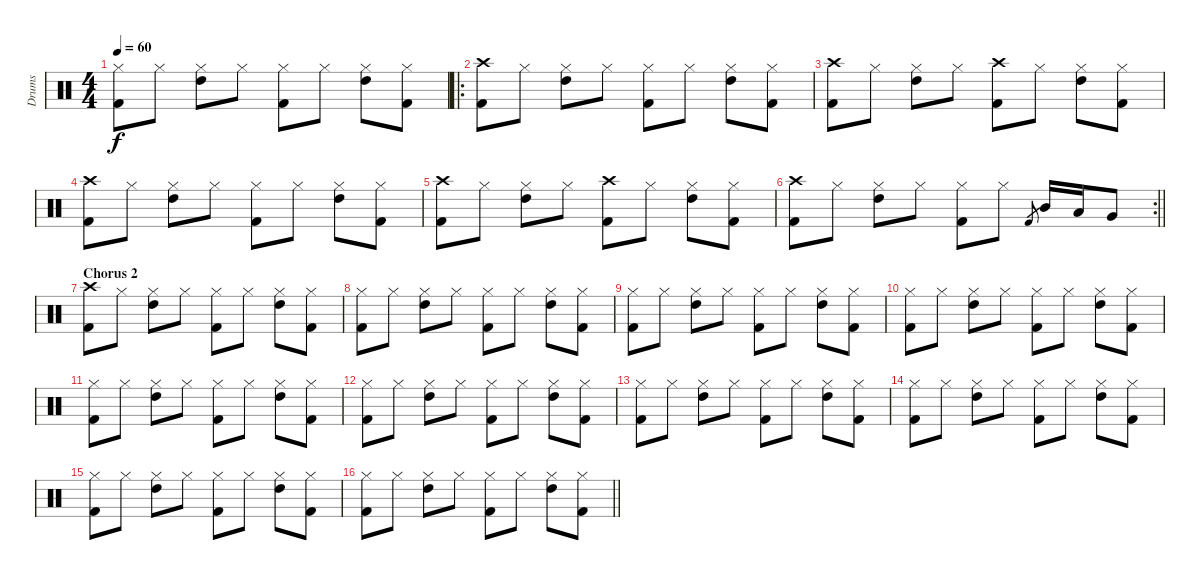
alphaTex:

\track ("Drums" "Drums") {instrument percussion}
\staff {score}
\articulation defaults
\ts (4 4)
\tempo 60
\clef neutral
\ks c
("Hi-Hat (closed)" "Kick (hit) 2").8{dy f} "Hi-Hat (closed)".8 ("Hi-Hat (closed)" "High Tom (hit)").8 "Hi-Hat (closed)".8 ("Hi-Hat (closed)" "Kick (hit) 2").8 "Hi-Hat (closed)".8 ("Hi-Hat (closed)" "High Tom (hit)").8 ("Hi-Hat (closed)" "Kick (hit) 2").8 |
\ro
("Crash high (hit)" "Kick (hit) 2").8 "Hi-Hat (closed)".8 ("Hi-Hat (closed)" "High Tom (hit)").8 "Hi-Hat (closed)".8 ("Hi-Hat (closed)" "Kick (hit) 2").8 "Hi-Hat (closed)".8 ("Hi-Hat (closed)" "High Tom (hit)").8 ("Hi-Hat (closed)" "Kick (hit) 2").8 |
("Crash high (hit)" "Kick (hit) 2").8 "Hi-Hat (closed)".8 ("Hi-Hat (closed)" "High Tom (hit)").8 "Hi-Hat (closed)".8 ("Crash high (hit)" "Kick (hit) 2").8 "Hi-Hat (closed)".8 ("Hi-Hat (closed)" "High Tom (hit)").8 ("Hi-Hat (closed)" "Kick (hit) 2").8 |
("Crash high (hit)" "Kick (hit) 2").8 "Hi-Hat (closed)".8 ("Hi-Hat (closed)" "High Tom (hit)").8 "Hi-Hat (closed)".8 ("Hi-Hat (closed)" "Kick (hit) 2").8 "Hi-Hat (closed)".8 ("Hi-Hat (closed)" "High Tom (hit)").8 ("Hi-Hat (closed)" "Kick (hit) 2").8 |
("Crash high (hit)" "Kick (hit) 2").8 "Hi-Hat (closed)".8 ("Hi-Hat (closed)" "High Tom (hit)").8 "Hi-Hat (closed)".8 ("Crash high (hit)" "Kick (hit) 2").8 "Hi-Hat (closed)".8 ("Hi-Hat (closed)" "High Tom (hit)").8 ("Hi-Hat (closed)" "Kick (hit) 2").8 |
\rc 2
\barLineRight lightlight
("Crash high (hit)" "Kick (hit) 2").8 "Hi-Hat (closed)".8 ("Hi-Hat (closed)" "High Tom (hit)").8 "Hi-Hat (closed)".8 ("Hi-Hat (closed)" "Kick (hit) 2").8 "Hi-Hat (closed)".8 "Kick (hit) 2".8{gr} "Mid Tom (hit)".16 "Low Tom (hit)".16 "Very Low Tom (hit)".8 |
\section ("" "Chorus 2")
("Crash high (hit)" "Kick (hit) 2").8 "Hi-Hat (closed)".8 ("Hi-Hat (closed)" "High Tom (hit)").8 "Hi-Hat (closed)".8 ("Hi-Hat (closed)" "Kick (hit) 2").8 "Hi-Hat (closed)".8 ("Hi-Hat (closed)" "High Tom (hit)").8 ("Hi-Hat (closed)" "Kick (hit) 2").8 |
("Hi-Hat (closed)" "Kick (hit) 2").8 "Hi-Hat (closed)".8 ("Hi-Hat (closed)" "High Tom (hit)").8 "Hi-Hat (closed)".8 ("Hi-Hat (closed)" "Kick (hit) 2").8 "Hi-Hat (closed)".8 ("Hi-Hat (closed)" "High Tom (hit)").8 ("Hi-Hat (closed)" "Kick (hit) 2").8 |
("Hi-Hat (closed)" "Kick (hit) 2").8 "Hi-Hat (closed)".8 ("Hi-Hat (closed)" "High Tom (hit)").8 "Hi-Hat (closed)".8 ("Hi-Hat (closed)" "Kick (hit) 2").8 "Hi-Hat (closed)".8 ("Hi-Hat (closed)" "High Tom (hit)").8 ("Hi-Hat (closed)" "Kick (hit) 2").8 |
("Hi-Hat (closed)" "Kick (hit) 2").8 "Hi-Hat (closed)".8 ("Hi-Hat (closed)" "High Tom (hit)").8 "Hi-Hat (closed)".8 ("Hi-Hat (closed)" "Kick (hit) 2").8 "Hi-Hat (closed)".8 ("Hi-Hat (closed)" "High Tom (hit)").8 ("Hi-Hat (closed)" "Kick (hit) 2").8 |
("Hi-Hat (closed)" "Kick (hit) 2").8 "Hi-Hat (closed)".8 ("Hi-Hat (closed)" "High Tom (hit)").8 "Hi-Hat (closed)".8 ("Hi-Hat (closed)" "Kick (hit) 2").8 "Hi-Hat (closed)".8 ("Hi-Hat (closed)" "High Tom (hit)").8 ("Hi-Hat (closed)" "Kick (hit) 2").8 |
("Hi-Hat (closed)" "Kick (hit) 2").8 "Hi-Hat (closed)".8 ("Hi-Hat (closed)" "High Tom (hit)").8 "Hi-Hat (closed)".8 ("Hi-Hat (closed)" "Kick (hit) 2").8 "Hi-Hat (closed)".8 ("Hi-Hat (closed)" "High Tom (hit)").8 ("Hi-Hat (closed)" "Kick (hit) 2").8 |
("Hi-Hat (closed)" "Kick (hit) 2").8 "Hi-Hat (closed)".8 ("Hi-Hat (closed)" "High Tom (hit)").8 "Hi-Hat (closed)".8 ("Hi-Hat (closed)" "Kick (hit) 2").8 "Hi-Hat (closed)".8 ("Hi-Hat (closed)" "High Tom (hit)").8 ("Hi-Hat (closed)" "Kick (hit) 2").8 |
("Hi-Hat (closed)" "Kick (hit) 2").8 "Hi-Hat (closed)".8 ("Hi-Hat (closed)" "High Tom (hit)").8 "Hi-Hat (closed)".8 ("Hi-Hat (closed)" "Kick (hit) 2").8 "Hi-Hat (closed)".8 ("Hi-Hat (closed)" "High Tom (hit)").8 ("Hi-Hat (closed)" "Kick (hit) 2").8 |
("Hi-Hat (closed)" "Kick (hit) 2").8 "Hi-Hat (closed)".8 ("Hi-Hat (closed)" "High Tom (hit)").8 "Hi-Hat (closed)".8 ("Hi-Hat (closed)" "Kick (hit) 2").8 "Hi-Hat (closed)".8 ("Hi-Hat (closed)" "High Tom (hit)").8 ("Hi-Hat (closed)" "Kick (hit) 2").8 |
\barLineRight lightlight
("Hi-Hat (closed)" "Kick (hit) 2").8 "Hi-Hat (closed)".8 ("Hi-Hat (closed)" "High Tom (hit)").8 "Hi-Hat (closed)".8 ("Hi-Hat (closed)" "Kick (hit) 2").8 "Hi-Hat (closed)".8 ("Hi-Hat (closed)" "High Tom (hit)").8 ("Hi-Hat (closed)" "Kick (hit) 2").8
